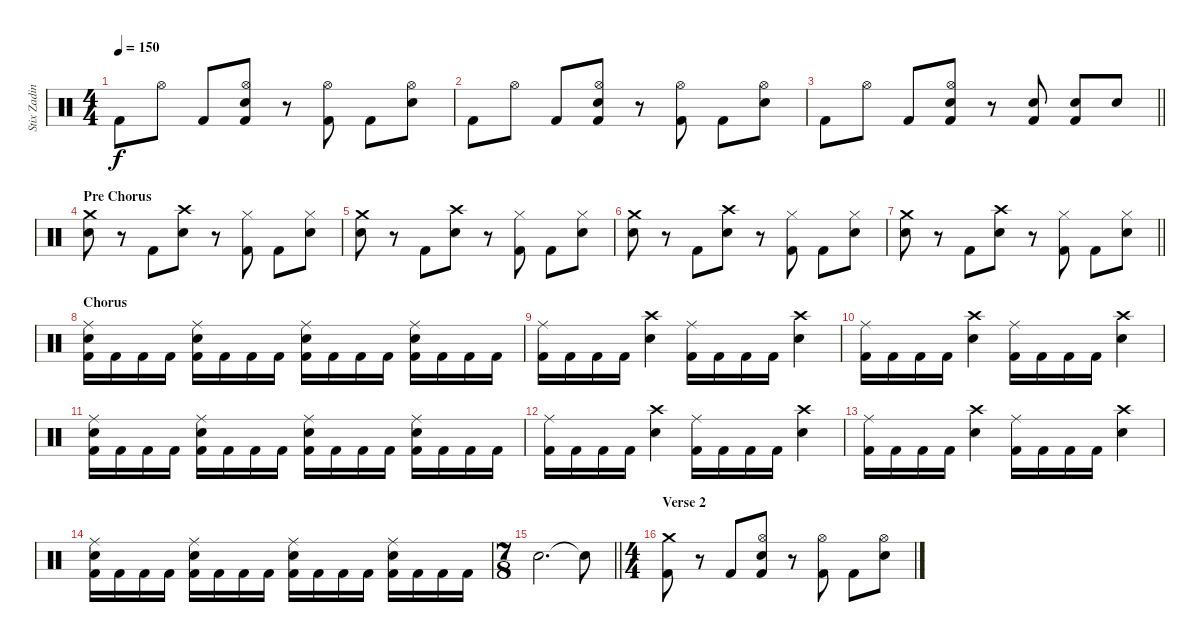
\track ("Stix Zadina" "Stix Zadin") {instrument percussion}
\staff {score}
\articulation defaults
\ts (4 4)
\tempo 150
\clef neutral
\ks c "Kick (hit) 2".8{dy f} "Hi-Hat (open)".8 "Kick (hit) 2".8
("Hi-Hat (open)" "Snare (hit) 2" "Kick (hit) 2").8 r.8 ("Hi-Hat (open)" "Kick (hit) 2").8 "Kick (hit) 2".8 ("Hi-Hat (open)" "Snare (hit) 2").8 |
"Kick (hit) 2".8 "Hi-Hat (open)".8 "Kick (hit) 2".8 ("Hi-Hat (open)" "Snare (hit) 2" "Kick (hit) 2").8 r.8 ("Hi-Hat (open)" "Kick (hit) 2").8 "Kick (hit) 2".8 ("Hi-Hat (open)" "Snare (hit) 2").8 |
\barLineRight lightlight "Kick (hit) 2".8 "Hi-Hat (open)".8 "Kick (hit) 2".8
("Hi-Hat (open)" "Snare (hit) 2" "Kick (hit) 2").8 r.8 ("Snare (hit) 2" "Kick (hit) 2").8 ("Snare (hit) 2" "Kick (hit) 2").8 "Snare (hit) 2".8 |
\section ("" "Pre Chorus")
("Crash medium (hit)" "Snare (hit) 2").8 r.8 "Kick (hit) 2".8 ("Crash high (hit)" "Snare (hit) 2").8 r.8 ("Hi-Hat (closed)" "Kick (hit) 2").8 "Kick (hit) 2".8 ("Hi-Hat (closed)" "Snare (hit) 2").8 |
("Crash medium (hit)" "Snare (hit) 2").8 r.8 "Kick (hit) 2".8 ("Crash high (hit)" "Snare (hit) 2").8 r.8 ("Hi-Hat (closed)" "Kick (hit) 2").8 "Kick (hit) 2".8 ("Hi-Hat (closed)" "Snare (hit) 2").8 |
("Crash medium (hit)" "Snare (hit) 2").8 r.8 "Kick (hit) 2".8 ("Crash high (hit)" "Snare (hit) 2").8 r.8 ("Hi-Hat (closed)" "Kick (hit) 2").8 "Kick (hit) 2".8 ("Hi-Hat (closed)" "Snare (hit) 2").8 |
\barLineRight lightlight
("Crash medium (hit)" "Snare (hit) 2").8 r.8 "Kick (hit) 2".8 ("Crash high (hit)" "Snare (hit) 2").8 r.8 ("Hi-Hat (closed)" "Kick (hit) 2").8 "Kick (hit) 2".8 ("Hi-Hat (closed)" "Snare (hit) 2").8 |
\section ("" "Chorus")
("Ride (middle)" "Snare (hit) 2" "Kick (hit) 2").16 "Kick (hit) 2".16 "Kick (hit) 2".16 "Kick (hit) 2".16 ("Ride (middle)" "Snare (hit) 2" "Kick (hit) 2").16 "Kick (hit) 2".16 "Kick (hit) 2".16 "Kick (hit) 2".16 ("Ride (middle)" "Snare (hit) 2" "Kick (hit) 2").16 "Kick (hit) 2".16 "Kick (hit) 2".16 "Kick (hit) 2".16 ("Ride (middle)" "Snare (hit) 2" "Kick (hit) 2").16 "Kick (hit) 2".16 "Kick (hit) 2".16 "Kick (hit) 2".16 |
("Ride (middle)" "Kick (hit) 2").16 "Kick (hit) 2".16 "Kick (hit) 2".16 "Kick (hit) 2".16 ("Crash high (hit)" "Snare (hit) 2").4 ("Ride (middle)" "Kick (hit) 2").16 "Kick (hit) 2".16 "Kick (hit) 2".16 "Kick (hit) 2".16 ("Crash high (hit)" "Snare (hit) 2").4 |
("Ride (middle)" "Kick (hit) 2").16 "Kick (hit) 2".16 "Kick (hit) 2".16 "Kick (hit) 2".16 ("Crash high (hit)" "Snare (hit) 2").4 ("Ride (middle)" "Kick (hit) 2").16 "Kick (hit) 2".16 "Kick (hit) 2".16 "Kick (hit) 2".16 ("Crash high (hit)" "Snare (hit) 2").4 |
("Ride (middle)" "Snare (hit) 2" "Kick (hit) 2").16 "Kick (hit) 2".16 "Kick (hit) 2".16 "Kick (hit) 2".16 ("Ride (middle)" "Snare (hit) 2" "Kick (hit) 2").16 "Kick (hit) 2".16 "Kick (hit) 2".16 "Kick (hit) 2".16 ("Ride (middle)" "Snare (hit) 2" "Kick (hit) 2").16 "Kick (hit) 2".16 "Kick (hit) 2".16 "Kick (hit) 2".16 ("Ride (middle)" "Snare (hit) 2" "Kick (hit) 2").16 "Kick (hit) 2".16 "Kick (hit) 2".16 "Kick (hit) 2".16 |
("Ride (middle)" "Kick (hit) 2").16 "Kick (hit) 2".16 "Kick (hit) 2".16 "Kick (hit) 2".16 ("Crash high (hit)" "Snare (hit) 2").4 ("Ride (middle)" "Kick (hit) 2").16 "Kick (hit) 2".16 "Kick (hit) 2".16 "Kick (hit) 2".16 ("Crash high (hit)" "Snare (hit) 2").4 |
("Ride (middle)" "Kick (hit) 2").16 "Kick (hit) 2".16 "Kick (hit) 2".16 "Kick (hit) 2".16 ("Crash high (hit)" "Snare (hit) 2").4 ("Ride (middle)" "Kick (hit) 2").16 "Kick (hit) 2".16 "Kick (hit) 2".16 "Kick (hit) 2".16 ("Crash high (hit)" "Snare (hit) 2").4 |
("Ride (middle)" "Snare (hit) 2" "Kick (hit) 2").16 "Kick (hit) 2".16 "Kick (hit) 2".16 "Kick (hit) 2".16 ("Ride (middle)" "Snare (hit) 2" "Kick (hit) 2").16 "Kick (hit) 2".16 "Kick (hit) 2".16 "Kick (hit) 2".16 ("Ride (middle)" "Snare (hit) 2" "Kick (hit) 2").16 "Kick (hit) 2".16 "Kick (hit) 2".16 "Kick (hit) 2".16 ("Ride (middle)" "Snare (hit) 2" "Kick (hit) 2").16 "Kick (hit) 2".16 "Kick (hit) 2".16 "Kick (hit) 2".16 |
\ts (7 8)
\barLineRight lightlight "Snare (hit) 2".2{d} "Snare (hit)"{t}.8
|
\ts (4 4)
\section ("" "Verse 2")
("Crash medium (hit)" "Kick (hit) 2").8 r.8 "Kick (hit) 2".8 ("Hi-Hat (open)" "Snare (hit) 2" "Kick (hit) 2").8 r.8 ("Hi-Hat (open)" "Kick (hit) 2").8 "Kick (hit) 2".8 ("Hi-Hat (open)" "Snare (hit) 2").8
